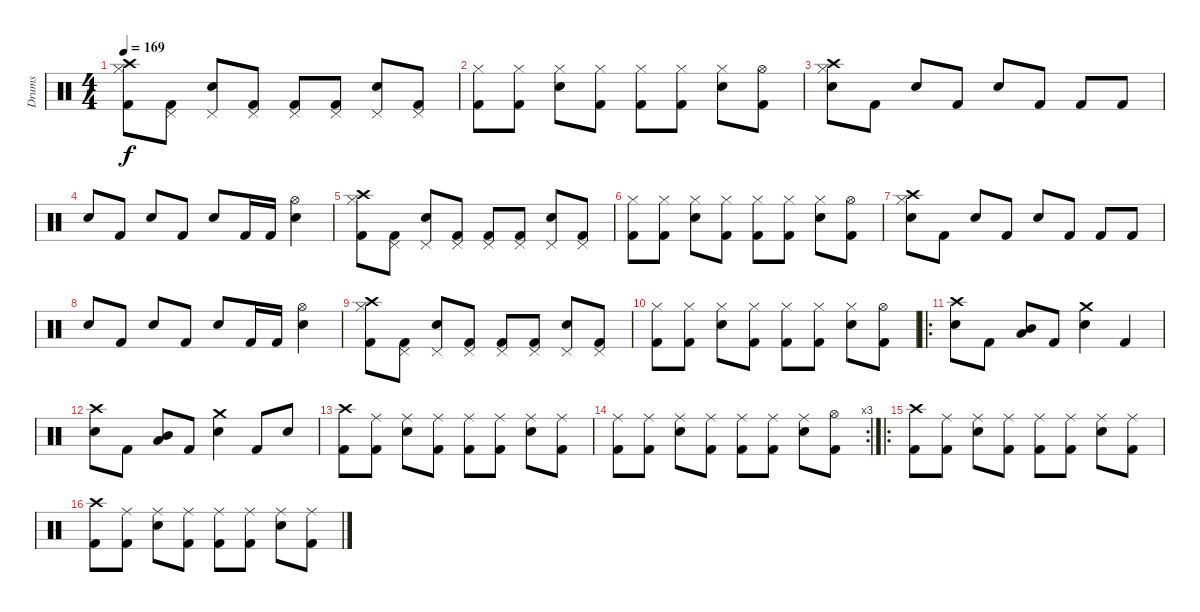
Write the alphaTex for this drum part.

\track ("Drums" "Drums") {instrument percussion}
\staff {score}
\articulation defaults
\ts (4 4)
\tempo 169
\clef neutral
\ks c
("Crash high (hit)" "Hi-Hat (closed)" "Kick (hit) 2").8{dy f} ("Pedal Hi-Hat (hit)" "Kick (hit) 2").8 ("Pedal Hi-Hat (hit)" "Snare (hit) 2").8 ("Pedal Hi-Hat (hit)" "Kick (hit) 2").8 ("Pedal Hi-Hat (hit)" "Kick (hit) 2").8 ("Pedal Hi-Hat (hit)" "Kick (hit) 2").8 ("Pedal Hi-Hat (hit)" "Snare (hit) 2").8 ("Pedal Hi-Hat (hit)" "Kick (hit) 2").8 |
("Hi-Hat (closed)" "Kick (hit) 2").8 ("Hi-Hat (closed)" "Kick (hit) 2").8 ("Hi-Hat (closed)" "Snare (hit) 2").8 ("Hi-Hat (closed)" "Kick (hit) 2").8 ("Hi-Hat (closed)" "Kick (hit) 2").8 ("Hi-Hat (closed)" "Kick (hit) 2").8 ("Hi-Hat (closed)" "Snare (hit) 2").8 ("Hi-Hat (open)" "Kick (hit) 2").8 |
("Crash high (hit)" "Hi-Hat (closed)" "Snare (hit) 2").8 "Kick (hit) 2".8 "Snare (hit) 2".8 "Kick (hit) 2".8 "Snare (hit) 2".8 "Kick (hit) 2".8 "Kick (hit) 2".8 "Kick (hit) 2".8 |
"Snare (hit) 2".8 "Kick (hit) 2".8 "Snare (hit) 2".8 "Kick (hit) 2".8 "Snare (hit) 2".8 "Kick (hit) 2".16 "Kick (hit) 2".16 ("Hi-Hat (open)" "Snare (hit) 2").4 |
("Crash high (hit)" "Hi-Hat (closed)" "Kick (hit) 2").8 ("Pedal Hi-Hat (hit)" "Kick (hit) 2").8 ("Pedal Hi-Hat (hit)" "Snare (hit) 2").8 ("Pedal Hi-Hat (hit)" "Kick (hit) 2").8 ("Pedal Hi-Hat (hit)" "Kick (hit) 2").8 ("Pedal Hi-Hat (hit)" "Kick (hit) 2").8 ("Pedal Hi-Hat (hit)" "Snare (hit) 2").8 ("Pedal Hi-Hat (hit)" "Kick (hit) 2").8 |
("Hi-Hat (closed)" "Kick (hit) 2").8 ("Hi-Hat (closed)" "Kick (hit) 2").8 ("Hi-Hat (closed)" "Snare (hit) 2").8 ("Hi-Hat (closed)" "Kick (hit) 2").8 ("Hi-Hat (closed)" "Kick (hit) 2").8 ("Hi-Hat (closed)" "Kick (hit) 2").8 ("Hi-Hat (closed)" "Snare (hit) 2").8 ("Hi-Hat (open)" "Kick (hit) 2").8 |
("Crash high (hit)" "Hi-Hat (closed)" "Snare (hit) 2").8 "Kick (hit) 2".8 "Snare (hit) 2".8 "Kick (hit) 2".8 "Snare (hit) 2".8 "Kick (hit) 2".8 "Kick (hit) 2".8 "Kick (hit) 2".8 |
"Snare (hit) 2".8 "Kick (hit) 2".8 "Snare (hit) 2".8 "Kick (hit) 2".8 "Snare (hit) 2".8 "Kick (hit) 2".16 "Kick (hit) 2".16 ("Hi-Hat (open)" "Snare (hit) 2").4 |
("Crash high (hit)" "Hi-Hat (closed)" "Kick (hit) 2").8 ("Pedal Hi-Hat (hit)" "Kick (hit) 2").8 ("Pedal Hi-Hat (hit)" "Snare (hit) 2").8 ("Pedal Hi-Hat (hit)" "Kick (hit) 2").8 ("Pedal Hi-Hat (hit)" "Kick (hit) 2").8 ("Pedal Hi-Hat (hit)" "Kick (hit) 2").8 ("Pedal Hi-Hat (hit)" "Snare (hit) 2").8 ("Pedal Hi-Hat (hit)" "Kick (hit) 2").8 |
("Hi-Hat (closed)" "Kick (hit) 2").8 ("Hi-Hat (closed)" "Kick (hit) 2").8 ("Hi-Hat (closed)" "Snare (hit) 2").8 ("Hi-Hat (closed)" "Kick (hit) 2").8 ("Hi-Hat (closed)" "Kick (hit) 2").8 ("Hi-Hat (closed)" "Kick (hit) 2").8 ("Hi-Hat (closed)" "Snare (hit) 2").8 ("Hi-Hat (open)" "Kick (hit) 2").8 |
\ro
("Crash high (hit)" "Snare (hit) 2").8 "Kick (hit) 2".8 ("Mid Tom (hit)" "Low Floor Tom (hit)").8 "Kick (hit) 2".8 ("Crash medium (hit)" "Snare (hit) 2").4 "Kick (hit) 2".4 |
("Crash high (hit)" "Snare (hit) 2").8 "Kick (hit) 2".8 ("Mid Tom (hit)" "Low Floor Tom (hit)").8 "Kick (hit) 2".8 ("Crash medium (hit)" "Snare (hit) 2").4 "Kick (hit) 2".8 "Snare (hit) 2".8 |
("Crash high (hit)" "Kick (hit) 2").8 ("Ride (middle)" "Kick (hit) 2").8 ("Ride (middle)" "Snare (hit) 2").8 ("Ride (middle)" "Kick (hit) 2").8 ("Ride (middle)" "Kick (hit) 2").8 ("Ride (middle)" "Kick (hit) 2").8 ("Ride (middle)" "Snare (hit) 2").8 ("Ride (middle)" "Kick (hit) 2").8 |
\rc 3
("Ride (middle)" "Kick (hit) 2").8 ("Ride (middle)" "Kick (hit) 2").8 ("Ride (middle)" "Snare (hit) 2").8 ("Ride (middle)" "Kick (hit) 2").8 ("Ride (middle)" "Kick (hit) 2").8 ("Ride (middle)" "Kick (hit) 2").8 ("Ride (middle)" "Snare (hit) 2").8 ("Hi-Hat (open)" "Kick (hit) 2").8 |
\ro
("Crash high (hit)" "Kick (hit) 2").8 ("Ride (middle)" "Kick (hit) 2").8 ("Ride (middle)" "Snare (hit) 2").8 ("Ride (middle)" "Kick (hit) 2").8 ("Ride (middle)" "Kick (hit) 2").8 ("Ride (middle)" "Kick (hit) 2").8 ("Ride (middle)" "Snare (hit) 2").8 ("Ride (middle)" "Kick (hit) 2").8 |
("Crash high (hit)" "Kick (hit) 2").8 ("Ride (middle)" "Kick (hit) 2").8 ("Ride (middle)" "Snare (hit) 2").8 ("Ride (middle)" "Kick (hit) 2").8 ("Ride (middle)" "Kick (hit) 2").8 ("Ride (middle)" "Kick (hit) 2").8 ("Ride (middle)" "Snare (hit) 2").8 ("Ride (middle)" "Kick (hit) 2").8
